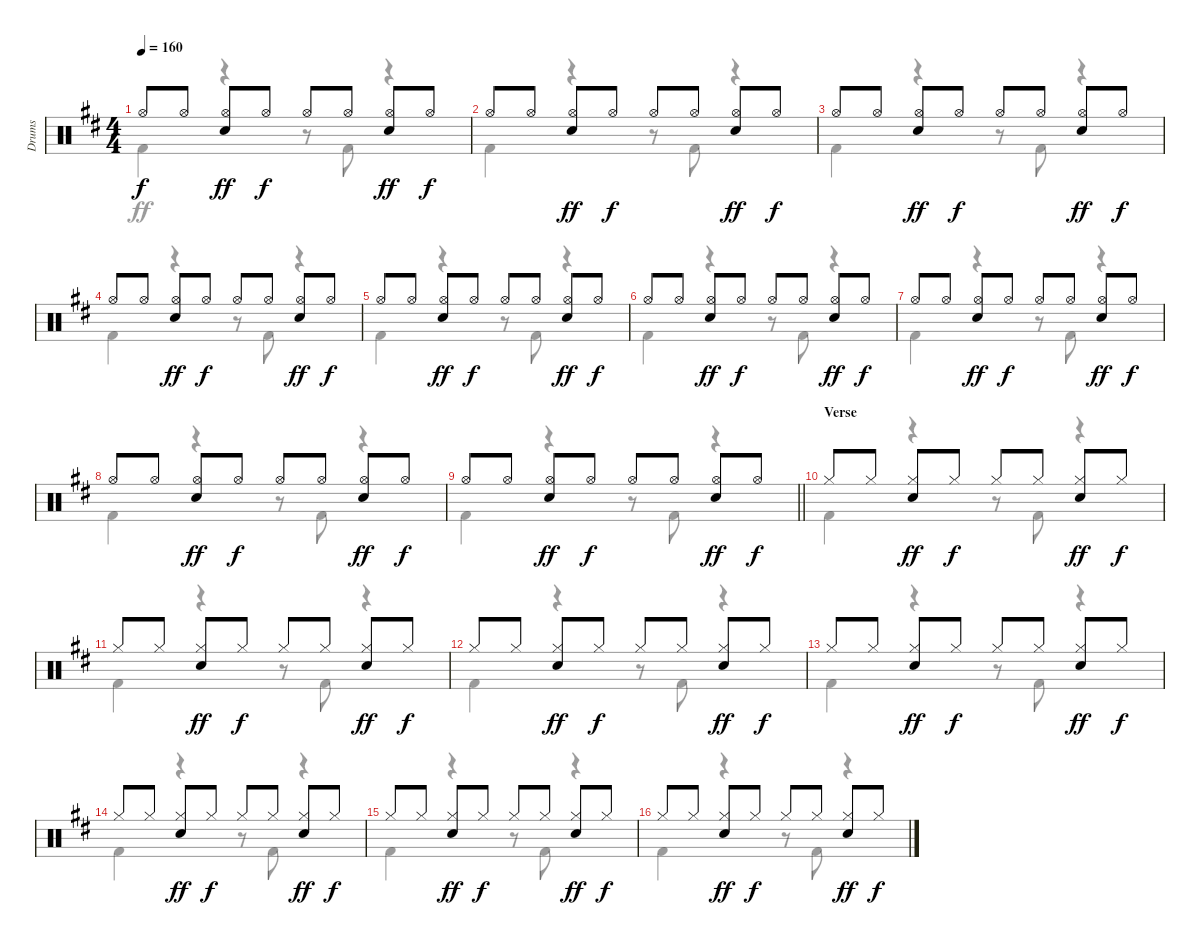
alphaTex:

\track ("Drums" "Drums") {instrument percussion}
\staff {score}
\articulation defaults
\voice
\ts (4 4)
\tempo 160
\clef neutral
\ks bminor "Hi-Hat (open)".8{dy f} "Hi-Hat (open)".8
("Hi-Hat (open)" "Electric Snare (hit)").8{dy ff} "Hi-Hat (open)".8{dy f} "Hi-Hat (open)".8 "Hi-Hat (open)".8 ("Hi-Hat (open)" "Electric Snare (hit)").8{dy ff} "Hi-Hat (open)".8{dy f} |
"Hi-Hat (open)".8 "Hi-Hat (open)".8 ("Hi-Hat (open)" "Electric Snare (hit)").8{dy ff} "Hi-Hat (open)".8{dy f} "Hi-Hat (open)".8 "Hi-Hat (open)".8 ("Hi-Hat (open)" "Electric Snare (hit)").8{dy ff} "Hi-Hat (open)".8{dy f} |
"Hi-Hat (open)".8 "Hi-Hat (open)".8 ("Hi-Hat (open)" "Electric Snare (hit)").8{dy ff} "Hi-Hat (open)".8{dy f} "Hi-Hat (open)".8 "Hi-Hat (open)".8 ("Hi-Hat (open)" "Electric Snare (hit)").8{dy ff} "Hi-Hat (open)".8{dy f} |
"Hi-Hat (open)".8 "Hi-Hat (open)".8 ("Hi-Hat (open)" "Electric Snare (hit)").8{dy ff} "Hi-Hat (open)".8{dy f} "Hi-Hat (open)".8 "Hi-Hat (open)".8 ("Hi-Hat (open)" "Electric Snare (hit)").8{dy ff} "Hi-Hat (open)".8{dy f} |
"Hi-Hat (open)".8 "Hi-Hat (open)".8 ("Hi-Hat (open)" "Electric Snare (hit)").8{dy ff} "Hi-Hat (open)".8{dy f} "Hi-Hat (open)".8 "Hi-Hat (open)".8 ("Hi-Hat (open)" "Electric Snare (hit)").8{dy ff} "Hi-Hat (open)".8{dy f} |
"Hi-Hat (open)".8 "Hi-Hat (open)".8 ("Hi-Hat (open)" "Electric Snare (hit)").8{dy ff} "Hi-Hat (open)".8{dy f} "Hi-Hat (open)".8 "Hi-Hat (open)".8 ("Hi-Hat (open)" "Electric Snare (hit)").8{dy ff} "Hi-Hat (open)".8{dy f} |
"Hi-Hat (open)".8 "Hi-Hat (open)".8 ("Hi-Hat (open)" "Electric Snare (hit)").8{dy ff} "Hi-Hat (open)".8{dy f} "Hi-Hat (open)".8 "Hi-Hat (open)".8 ("Hi-Hat (open)" "Electric Snare (hit)").8{dy ff} "Hi-Hat (open)".8{dy f} |
"Hi-Hat (open)".8 "Hi-Hat (open)".8 ("Hi-Hat (open)" "Electric Snare (hit)").8{dy ff} "Hi-Hat (open)".8{dy f} "Hi-Hat (open)".8 "Hi-Hat (open)".8 ("Hi-Hat (open)" "Electric Snare (hit)").8{dy ff} "Hi-Hat (open)".8{dy f} |
\barLineRight lightlight "Hi-Hat (open)".8 "Hi-Hat (open)".8
("Hi-Hat (open)" "Electric Snare (hit)").8{dy ff} "Hi-Hat (open)".8{dy f} "Hi-Hat (open)".8 "Hi-Hat (open)".8 ("Hi-Hat (open)" "Electric Snare (hit)").8{dy ff} "Hi-Hat (open)".8{dy f} |
\section ("" "Verse")
"Hi-Hat (closed)".8 "Hi-Hat (closed)".8 ("Hi-Hat (closed)" "Electric Snare (hit)").8{dy ff} "Hi-Hat (closed)".8{dy f} "Hi-Hat (closed)".8 "Hi-Hat (closed)".8 ("Hi-Hat (closed)" "Electric Snare (hit)").8{dy ff} "Hi-Hat (closed)".8{dy f} |
"Hi-Hat (closed)".8 "Hi-Hat (closed)".8 ("Hi-Hat (closed)" "Electric Snare (hit)").8{dy ff} "Hi-Hat (closed)".8{dy f} "Hi-Hat (closed)".8 "Hi-Hat (closed)".8 ("Hi-Hat (closed)" "Electric Snare (hit)").8{dy ff} "Hi-Hat (closed)".8{dy f} |
"Hi-Hat (closed)".8 "Hi-Hat (closed)".8 ("Hi-Hat (closed)" "Electric Snare (hit)").8{dy ff} "Hi-Hat (closed)".8{dy f} "Hi-Hat (closed)".8 "Hi-Hat (closed)".8 ("Hi-Hat (closed)" "Electric Snare (hit)").8{dy ff} "Hi-Hat (closed)".8{dy f} |
"Hi-Hat (closed)".8 "Hi-Hat (closed)".8 ("Hi-Hat (closed)" "Electric Snare (hit)").8{dy ff} "Hi-Hat (closed)".8{dy f} "Hi-Hat (closed)".8 "Hi-Hat (closed)".8 ("Hi-Hat (closed)" "Electric Snare (hit)").8{dy ff} "Hi-Hat (closed)".8{dy f} |
"Hi-Hat (closed)".8 "Hi-Hat (closed)".8 ("Hi-Hat (closed)" "Electric Snare (hit)").8{dy ff} "Hi-Hat (closed)".8{dy f} "Hi-Hat (closed)".8 "Hi-Hat (closed)".8 ("Hi-Hat (closed)" "Electric Snare (hit)").8{dy ff} "Hi-Hat (closed)".8{dy f} |
"Hi-Hat (closed)".8 "Hi-Hat (closed)".8 ("Hi-Hat (closed)" "Electric Snare (hit)").8{dy ff} "Hi-Hat (closed)".8{dy f} "Hi-Hat (closed)".8 "Hi-Hat (closed)".8 ("Hi-Hat (closed)" "Electric Snare (hit)").8{dy ff} "Hi-Hat (closed)".8{dy f} |
"Hi-Hat (closed)".8 "Hi-Hat (closed)".8 ("Hi-Hat (closed)" "Electric Snare (hit)").8{dy ff} "Hi-Hat (closed)".8{dy f} "Hi-Hat (closed)".8 "Hi-Hat (closed)".8 ("Hi-Hat (closed)" "Electric Snare (hit)").8{dy ff} "Hi-Hat (closed)".8{dy f}
\voice
\clef neutral
\ottava regular
\simile none
\ks bminor "Kick (hit) 2".4{dy ff}
r.4 r.8 "Kick (hit) 2".8 r.4 |
"Kick (hit) 2".4 r.4 r.8 "Kick (hit) 2".8 r.4 |
"Kick (hit) 2".4 r.4 r.8 "Kick (hit) 2".8 r.4 |
"Kick (hit) 2".4 r.4 r.8 "Kick (hit) 2".8 r.4 |
"Kick (hit) 2".4 r.4 r.8 "Kick (hit) 2".8 r.4 |
"Kick (hit) 2".4 r.4 r.8 "Kick (hit) 2".8 r.4 |
"Kick (hit) 2".4 r.4 r.8 "Kick (hit) 2".8 r.4 |
"Kick (hit) 2".4 r.4 r.8 "Kick (hit) 2".8 r.4 |
\barLineRight lightlight "Kick (hit) 2".4
r.4 r.8 "Kick (hit) 2".8 r.4 |
"Kick (hit) 2".4 r.4 r.8 "Kick (hit) 2".8 r.4 |
"Kick (hit) 2".4 r.4 r.8 "Kick (hit) 2".8 r.4 |
"Kick (hit) 2".4 r.4 r.8 "Kick (hit) 2".8 r.4 |
"Kick (hit) 2".4 r.4 r.8 "Kick (hit) 2".8 r.4 |
"Kick (hit) 2".4 r.4 r.8 "Kick (hit) 2".8 r.4 |
"Kick (hit) 2".4 r.4 r.8 "Kick (hit) 2".8 r.4 |
"Kick (hit) 2".4 r.4 r.8 "Kick (hit) 2".8 r.4
